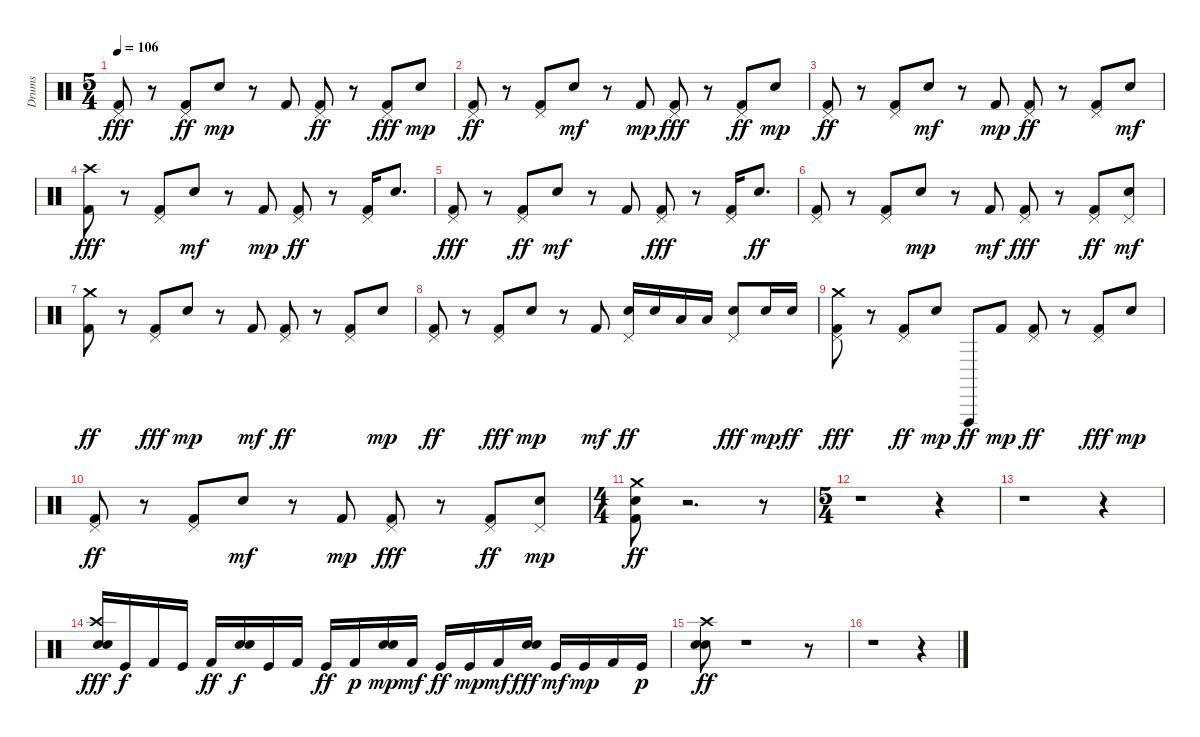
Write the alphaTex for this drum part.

\track ("Drums" "Drums") {instrument percussion}
\staff {score}
\articulation defaults
\ts (5 4)
\tempo 106
\clef neutral
\ks c
("Pedal Hi-Hat (hit)" "Kick (hit) 2").8{dy fff} r.8 ("Pedal Hi-Hat (hit)" "Kick (hit) 2").8{dy ff} "Electric Snare (hit)".8{dy mp} r.8 "Kick (hit) 2".8 ("Pedal Hi-Hat (hit)" "Kick (hit) 2").8{dy ff} r.8 ("Pedal Hi-Hat (hit)" "Kick (hit) 2").8{dy fff} "Electric Snare (hit)".8{dy mp} |
("Pedal Hi-Hat (hit)" "Kick (hit) 2").8{dy ff} r.8 ("Pedal Hi-Hat (hit)" "Kick (hit) 2").8 "Electric Snare (hit)".8{dy mf} r.8 "Kick (hit) 2".8{dy mp} ("Pedal Hi-Hat (hit)" "Kick (hit) 2").8{dy fff} r.8 ("Pedal Hi-Hat (hit)" "Kick (hit) 2").8{dy ff} "Electric Snare (hit)".8{dy mp} |
("Pedal Hi-Hat (hit)" "Kick (hit) 2").8{dy ff} r.8 ("Pedal Hi-Hat (hit)" "Kick (hit) 2").8 "Electric Snare (hit)".8{dy mf} r.8 "Kick (hit) 2".8{dy mp} ("Pedal Hi-Hat (hit)" "Kick (hit) 2").8{dy ff} r.8 ("Pedal Hi-Hat (hit)" "Kick (hit) 2").8 "Electric Snare (hit)".8{dy mf} |
("Crash high (hit)" "Kick (hit) 2").8{dy fff} r.8 ("Pedal Hi-Hat (hit)" "Kick (hit) 2").8 "Electric Snare (hit)".8{dy mf} r.8 "Kick (hit) 2".8{dy mp} ("Pedal Hi-Hat (hit)" "Kick (hit) 2").8{dy ff} r.8 ("Pedal Hi-Hat (hit)" "Kick (hit) 2").16 "Electric Snare (hit)".8{d} |
("Pedal Hi-Hat (hit)" "Kick (hit) 2").8{dy fff} r.8 ("Pedal Hi-Hat (hit)" "Kick (hit) 2").8{dy ff} "Electric Snare (hit)".8{dy mf} r.8 "Kick (hit) 2".8 ("Pedal Hi-Hat (hit)" "Kick (hit) 2").8{dy fff} r.8 ("Pedal Hi-Hat (hit)" "Kick (hit) 2").16 "Electric Snare (hit)".8{d dy ff} |
("Pedal Hi-Hat (hit)" "Kick (hit) 2").8 r.8 ("Pedal Hi-Hat (hit)" "Kick (hit) 2").8 "Electric Snare (hit)".8{dy mp} r.8 "Kick (hit) 2".8{dy mf} ("Pedal Hi-Hat (hit)" "Kick (hit) 2").8{dy fff} r.8 ("Pedal Hi-Hat (hit)" "Kick (hit) 2").8{dy ff} ("Pedal Hi-Hat (hit)" "Electric Snare (hit)").8{dy mf} |
("Kick (hit) 2" "Crash medium (hit)").8{dy ff} r.8 ("Pedal Hi-Hat (hit)" "Kick (hit) 2").8{dy fff} "Electric Snare (hit)".8{dy mp} r.8 "Kick (hit) 2".8{dy mf} ("Pedal Hi-Hat (hit)" "Kick (hit) 2").8{dy ff} r.8 ("Pedal Hi-Hat (hit)" "Kick (hit) 2").8 "Electric Snare (hit)".8{dy mp} |
("Pedal Hi-Hat (hit)" "Kick (hit) 2").8{dy ff} r.8 ("Pedal Hi-Hat (hit)" "Kick (hit) 2").8{dy fff} "Electric Snare (hit)".8{dy mp} r.8 "Kick (hit) 2".8{dy mf} ("Pedal Hi-Hat (hit)" "Electric Snare (hit)").16{dy ff} "Electric Snare (hit)".16 "Low Tom (hit)".16 "Low Tom (hit)".16 ("Pedal Hi-Hat (hit)" "Electric Snare (hit)").8{dy fff} "Electric Snare (hit)".16{dy mp} "Electric Snare (hit)".16{dy ff} |
("Kick (hit) 2" "Crash medium (hit)" "Pedal Hi-Hat (hit)").8{dy fff} r.8 ("Pedal Hi-Hat (hit)" "Kick (hit) 2").8{dy ff} "Electric Snare (hit)".8{dy mp} "Vibraslap (hit)".8{dy ff} "Kick (hit) 2".8{dy mp} ("Pedal Hi-Hat (hit)" "Kick (hit) 2").8{dy ff} r.8 ("Pedal Hi-Hat (hit)" "Kick (hit) 2").8{dy fff} "Electric Snare (hit)".8{dy mp} |
("Pedal Hi-Hat (hit)" "Kick (hit) 2").8{dy ff} r.8 ("Pedal Hi-Hat (hit)" "Kick (hit) 2").8 "Electric Snare (hit)".8{dy mf} r.8 "Kick (hit) 2".8{dy mp} ("Pedal Hi-Hat (hit)" "Kick (hit) 2").8{dy fff} r.8 ("Pedal Hi-Hat (hit)" "Kick (hit) 2").8{dy ff} ("Pedal Hi-Hat (hit)" "Electric Snare (hit)").8{dy mp} |
\ts (4 4)
("Electric Snare (hit)" "Kick (hit) 2" "Crash medium (hit)").8{dy ff} r.2{d} r.8 |
\ts (5 4)
r.1 r.4 |
r.1 r.4 |
("Crash high (hit)" "Snare (hit) 2" "Electric Snare (hit)").16{dy fff} "Kick (hit)".16{dy f} "Kick (hit) 2".16 "Kick (hit)".16 "Kick (hit) 2".16{dy ff} ("Electric Snare (hit)" "Snare (hit) 2").16{dy f} "Kick (hit)".16 "Kick (hit) 2".16 "Kick (hit)".16{dy ff} "Kick (hit) 2".16{dy p} ("Electric Snare (hit)" "Snare (hit) 2").16{dy mp} "Kick (hit) 2".16{dy mf} "Kick (hit)".16{dy ff} "Kick (hit)".16{dy mp} "Kick (hit) 2".16{dy mf} ("Snare (hit) 2" "Electric Snare (hit)").16{dy fff} "Kick (hit)".16{dy mf} "Kick (hit)".16{dy mp} "Kick (hit) 2".16 "Kick (hit)".16{dy p} |
("Crash high (hit)" "Electric Snare (hit)" "Electric Snare (hit)").8{dy ff} r.1 r.8 |
r.1 r.4
